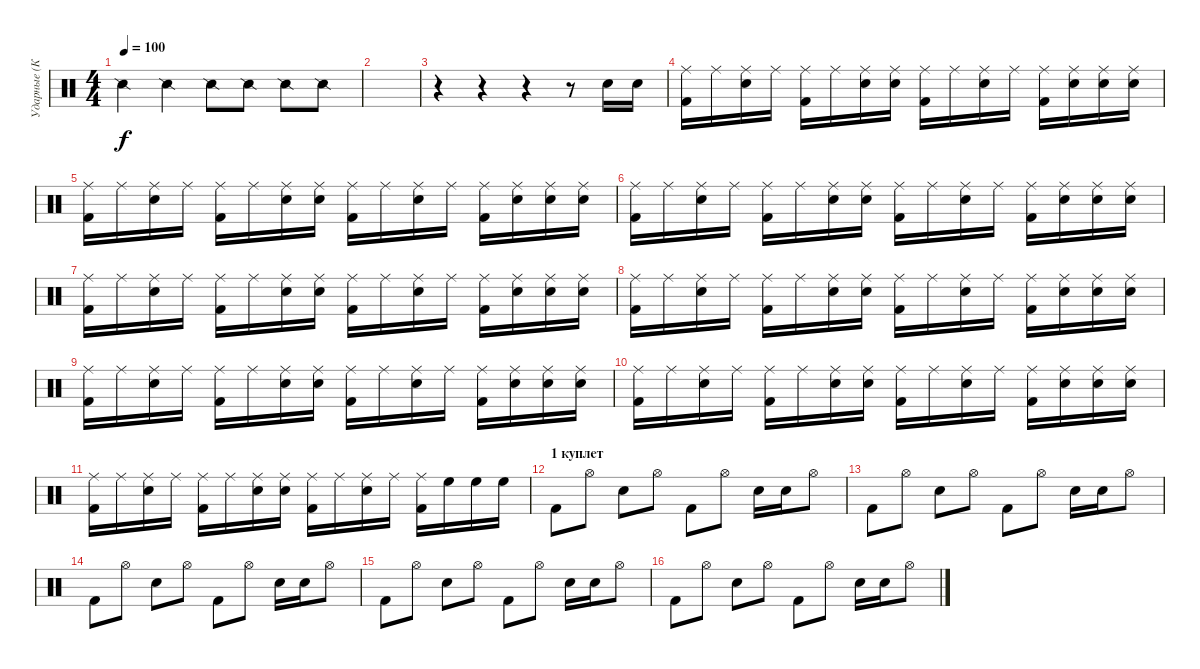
\track ("Ударные (Котов)" "Ударные (К") {instrument percussion}
\staff {score}
\articulation defaults
\ts (4 4)
\tempo 100
\clef neutral
\ks c "Snare (side stick) 2".4{dy f} "Snare (side stick) 2".4 "Snare (side stick) 2".8 "Snare (side stick) 2".8 "Snare (side stick) 2".8 "Snare (side stick) 2".8
|
|
r.4 r.4 r.4 r.8 "Snare (hit) 2".16 "Snare (hit) 2".16 |
("Ride (middle)" "Kick (hit) 2").16 "Ride (middle)".16 ("Ride (middle)" "Snare (hit) 2").16 "Ride (middle)".16 ("Ride (middle)" "Kick (hit) 2").16 "Ride (middle)".16 ("Ride (middle)" "Snare (hit) 2").16 ("Ride (middle)" "Snare (hit) 2").16 ("Ride (middle)" "Kick (hit) 2").16 "Ride (middle)".16 ("Ride (middle)" "Snare (hit) 2").16 "Ride (middle)".16 ("Ride (middle)" "Kick (hit) 2").16 ("Ride (middle)" "Snare (hit) 2").16 ("Ride (middle)" "Snare (hit) 2").16 ("Ride (middle)" "Snare (hit) 2").16 |
("Ride (middle)" "Kick (hit) 2").16 "Ride (middle)".16 ("Ride (middle)" "Snare (hit) 2").16 "Ride (middle)".16 ("Ride (middle)" "Kick (hit) 2").16 "Ride (middle)".16 ("Ride (middle)" "Snare (hit) 2").16 ("Ride (middle)" "Snare (hit) 2").16 ("Ride (middle)" "Kick (hit) 2").16 "Ride (middle)".16 ("Ride (middle)" "Snare (hit) 2").16 "Ride (middle)".16 ("Ride (middle)" "Kick (hit) 2").16 ("Ride (middle)" "Snare (hit) 2").16 ("Ride (middle)" "Snare (hit) 2").16 ("Ride (middle)" "Snare (hit) 2").16 |
("Ride (middle)" "Kick (hit) 2").16 "Ride (middle)".16 ("Ride (middle)" "Snare (hit) 2").16 "Ride (middle)".16 ("Ride (middle)" "Kick (hit) 2").16 "Ride (middle)".16 ("Ride (middle)" "Snare (hit) 2").16 ("Ride (middle)" "Snare (hit) 2").16 ("Ride (middle)" "Kick (hit) 2").16 "Ride (middle)".16 ("Ride (middle)" "Snare (hit) 2").16 "Ride (middle)".16 ("Ride (middle)" "Kick (hit) 2").16 ("Ride (middle)" "Snare (hit) 2").16 ("Ride (middle)" "Snare (hit) 2").16 ("Ride (middle)" "Snare (hit) 2").16 |
("Ride (middle)" "Kick (hit) 2").16 "Ride (middle)".16 ("Ride (middle)" "Snare (hit) 2").16 "Ride (middle)".16 ("Ride (middle)" "Kick (hit) 2").16 "Ride (middle)".16 ("Ride (middle)" "Snare (hit) 2").16 ("Ride (middle)" "Snare (hit) 2").16 ("Ride (middle)" "Kick (hit) 2").16 "Ride (middle)".16 ("Ride (middle)" "Snare (hit) 2").16 "Ride (middle)".16 ("Ride (middle)" "Kick (hit) 2").16 ("Ride (middle)" "Snare (hit) 2").16 ("Ride (middle)" "Snare (hit) 2").16 ("Ride (middle)" "Snare (hit) 2").16 |
("Ride (middle)" "Kick (hit) 2").16 "Ride (middle)".16 ("Ride (middle)" "Snare (hit) 2").16 "Ride (middle)".16 ("Ride (middle)" "Kick (hit) 2").16 "Ride (middle)".16 ("Ride (middle)" "Snare (hit) 2").16 ("Ride (middle)" "Snare (hit) 2").16 ("Ride (middle)" "Kick (hit) 2").16 "Ride (middle)".16 ("Ride (middle)" "Snare (hit) 2").16 "Ride (middle)".16 ("Ride (middle)" "Kick (hit) 2").16 ("Ride (middle)" "Snare (hit) 2").16 ("Ride (middle)" "Snare (hit) 2").16 ("Ride (middle)" "Snare (hit) 2").16 |
("Ride (middle)" "Kick (hit) 2").16 "Ride (middle)".16 ("Ride (middle)" "Snare (hit) 2").16 "Ride (middle)".16 ("Ride (middle)" "Kick (hit) 2").16 "Ride (middle)".16 ("Ride (middle)" "Snare (hit) 2").16 ("Ride (middle)" "Snare (hit) 2").16 ("Ride (middle)" "Kick (hit) 2").16 "Ride (middle)".16 ("Ride (middle)" "Snare (hit) 2").16 "Ride (middle)".16 ("Ride (middle)" "Kick (hit) 2").16 ("Ride (middle)" "Snare (hit) 2").16 ("Ride (middle)" "Snare (hit) 2").16 ("Ride (middle)" "Snare (hit) 2").16 |
("Ride (middle)" "Kick (hit) 2").16 "Ride (middle)".16 ("Ride (middle)" "Snare (hit) 2").16 "Ride (middle)".16 ("Ride (middle)" "Kick (hit) 2").16 "Ride (middle)".16 ("Ride (middle)" "Snare (hit) 2").16 ("Ride (middle)" "Snare (hit) 2").16 ("Ride (middle)" "Kick (hit) 2").16 "Ride (middle)".16 ("Ride (middle)" "Snare (hit) 2").16 "Ride (middle)".16 ("Ride (middle)" "Kick (hit) 2").16 ("Ride (middle)" "Snare (hit) 2").16 ("Ride (middle)" "Snare (hit) 2").16 ("Ride (middle)" "Snare (hit) 2").16 |
("Ride (middle)" "Kick (hit) 2").16 "Ride (middle)".16 ("Ride (middle)" "Snare (hit) 2").16 "Ride (middle)".16 ("Ride (middle)" "Kick (hit) 2").16 "Ride (middle)".16 ("Ride (middle)" "Snare (hit) 2").16 ("Ride (middle)" "Snare (hit) 2").16 ("Ride (middle)" "Kick (hit) 2").16 "Ride (middle)".16 ("Ride (middle)" "Snare (hit) 2").16 "Ride (middle)".16 ("Ride (middle)" "Kick (hit) 2").16 "High Floor Tom (hit)".16 "High Floor Tom (hit)".16 "High Floor Tom (hit)".16 |
\section ("" "1 куплет")
"Kick (hit) 2".8 "Hi-Hat (open)".8 "Snare (hit) 2".8 "Hi-Hat (open)".8 "Kick (hit) 2".8 "Hi-Hat (open)".8 "Snare (hit) 2".16 "Snare (hit) 2".16 "Hi-Hat (open)".8 |
"Kick (hit) 2".8 "Hi-Hat (open)".8 "Snare (hit) 2".8 "Hi-Hat (open)".8 "Kick (hit) 2".8 "Hi-Hat (open)".8 "Snare (hit) 2".16 "Snare (hit) 2".16 "Hi-Hat (open)".8 |
"Kick (hit) 2".8 "Hi-Hat (open)".8 "Snare (hit) 2".8 "Hi-Hat (open)".8 "Kick (hit) 2".8 "Hi-Hat (open)".8 "Snare (hit) 2".16 "Snare (hit) 2".16 "Hi-Hat (open)".8 |
"Kick (hit) 2".8 "Hi-Hat (open)".8 "Snare (hit) 2".8 "Hi-Hat (open)".8 "Kick (hit) 2".8 "Hi-Hat (open)".8 "Snare (hit) 2".16 "Snare (hit) 2".16 "Hi-Hat (open)".8 |
"Kick (hit) 2".8 "Hi-Hat (open)".8 "Snare (hit) 2".8 "Hi-Hat (open)".8 "Kick (hit) 2".8 "Hi-Hat (open)".8 "Snare (hit) 2".16 "Snare (hit) 2".16 "Hi-Hat (open)".8
